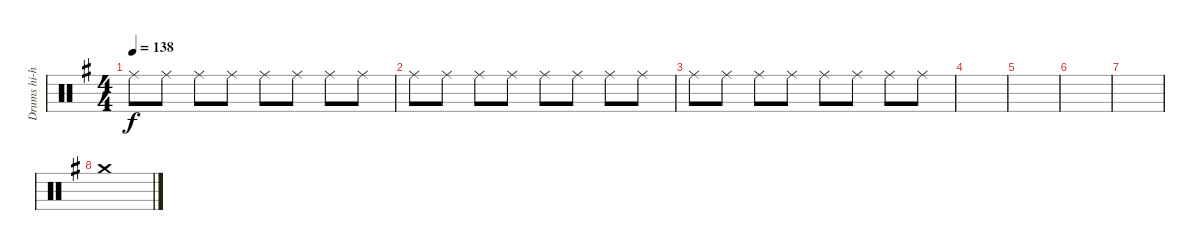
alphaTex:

\track ("Drums hi-hat" "Drums hi-h") {instrument percussion}
\staff {score}
\articulation defaults
\ts (4 4)
\tempo 138
\clef neutral
\ks g "Ride (middle)".8{dy f} "Ride (middle)".8 "Ride (middle)".8 "Ride (middle)".8 "Ride (middle)".8 "Ride (middle)".8 "Ride (middle)".8 "Ride (middle)".8
|
"Ride (middle)".8 "Ride (middle)".8 "Ride (middle)".8 "Ride (middle)".8 "Ride (middle)".8 "Ride (middle)".8 "Ride (middle)".8 "Ride (middle)".8 |
"Ride (middle)".8 "Ride (middle)".8 "Ride (middle)".8 "Ride (middle)".8 "Ride (middle)".8 "Ride (middle)".8 "Ride (middle)".8 "Ride (middle)".8 |
|
|
|
|
"Crash medium (hit)".1
